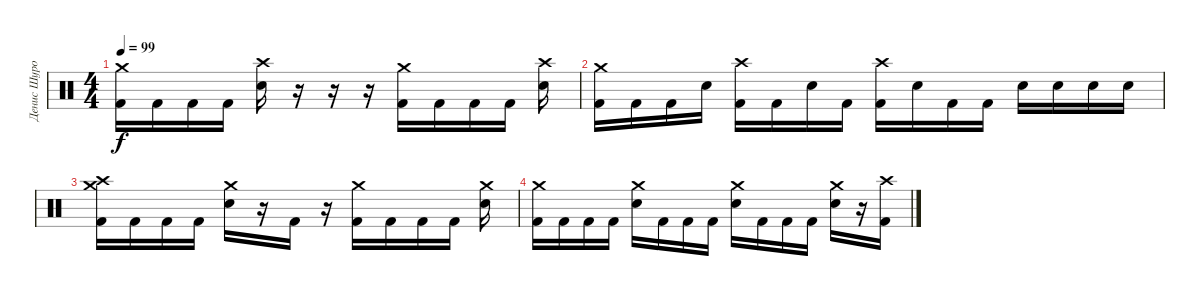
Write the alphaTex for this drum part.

\track ("Денис Шуров" "Денис Шуро") {instrument percussion}
\staff {score}
\articulation defaults
\ts (4 4)
\tempo 99
\clef neutral
\ks c
("Crash medium (hit)" "Kick (hit) 2").16{dy f} "Kick (hit) 2".16 "Kick (hit) 2".16 "Kick (hit) 2".16 ("Crash high (hit)" "Electric Snare (hit)").16 r.16 r.16 r.16 ("Crash medium (hit)" "Kick (hit) 2").16 "Kick (hit) 2".16 "Kick (hit) 2".16 "Kick (hit) 2".16 ("Crash high (hit)" "Electric Snare (hit)").16 |
("Crash medium (hit)" "Kick (hit) 2").16 "Kick (hit) 2".16 "Kick (hit) 2".16 "Electric Snare (hit)".16 ("Crash high (hit)" "Kick (hit) 2").16 "Kick (hit) 2".16 "Electric Snare (hit)".16 "Kick (hit) 2".16 ("Crash high (hit)" "Kick (hit) 2").16 "Electric Snare (hit)".16 "Kick (hit) 2".16 "Kick (hit) 2".16 "Electric Snare (hit)".16 "Electric Snare (hit)".16 "Electric Snare (hit)".16 "Electric Snare (hit)".16 |
("Crash high (hit)" "Crash medium (hit)" "Kick (hit) 2").16 "Kick (hit) 2".16 "Kick (hit) 2".16 "Kick (hit) 2".16 ("Crash medium (hit)" "Electric Snare (hit)").16 r.16 "Kick (hit) 2".16 r.16 ("Crash medium (hit)" "Kick (hit) 2").16 "Kick (hit) 2".16 "Kick (hit) 2".16 "Kick (hit) 2".16 ("Crash medium (hit)" "Electric Snare (hit)").16 |
("Crash medium (hit)" "Kick (hit) 2").16 "Kick (hit) 2".16 "Kick (hit) 2".16 "Kick (hit) 2".16 ("Crash medium (hit)" "Electric Snare (hit)").16 "Kick (hit) 2".16 "Kick (hit) 2".16 "Kick (hit) 2".16 ("Crash medium (hit)" "Electric Snare (hit)").16 "Kick (hit) 2".16 "Kick (hit) 2".16 "Kick (hit) 2".16 ("Crash medium (hit)" "Electric Snare (hit)").16 r.16 ("Crash high (hit)" "Kick (hit) 2").16
